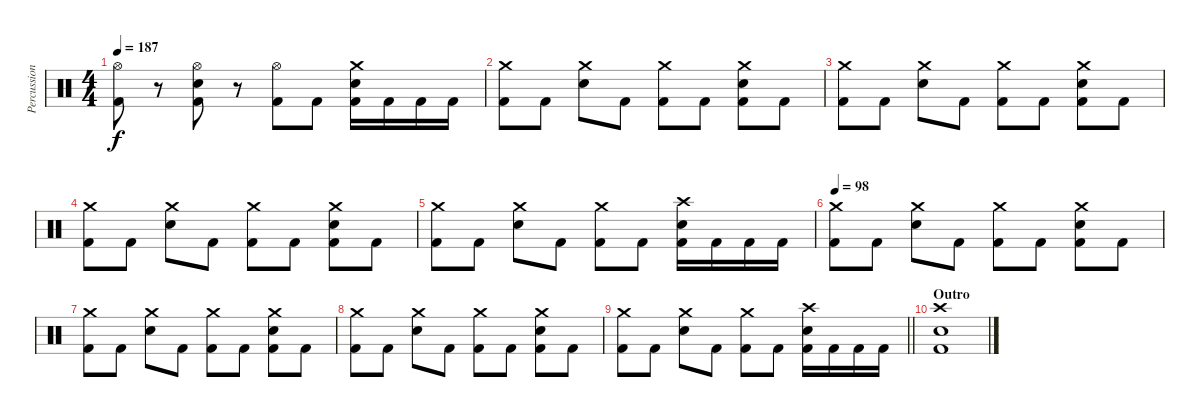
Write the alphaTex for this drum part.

\track ("Percussion" "Percussion") {instrument percussion}
\staff {score}
\articulation defaults
\ts (4 4)
\tempo 187
\clef neutral
\ks c
("Hi-Hat (open)" "Kick (hit) 2").8{dy f} r.8 ("Hi-Hat (open)" "Electric Snare (hit)" "Kick (hit) 2").8 r.8 ("Hi-Hat (open)" "Kick (hit) 2").8 "Kick (hit) 2".8 ("Crash medium (hit)" "Electric Snare (hit)" "Kick (hit) 2").16 "Kick (hit) 2".16 "Kick (hit) 2".16 "Kick (hit) 2".16 |
("Crash medium (hit)" "Kick (hit) 2").8 "Kick (hit) 2".8 ("Crash medium (hit)" "Electric Snare (hit)").8 "Kick (hit) 2".8 ("Crash medium (hit)" "Kick (hit) 2").8 "Kick (hit) 2".8 ("Crash medium (hit)" "Electric Snare (hit)" "Kick (hit) 2").8 "Kick (hit) 2".8 |
("Crash medium (hit)" "Kick (hit) 2").8 "Kick (hit) 2".8 ("Crash medium (hit)" "Electric Snare (hit)").8 "Kick (hit) 2".8 ("Crash medium (hit)" "Kick (hit) 2").8 "Kick (hit) 2".8 ("Crash medium (hit)" "Electric Snare (hit)" "Kick (hit) 2").8 "Kick (hit) 2".8 |
("Crash medium (hit)" "Kick (hit) 2").8 "Kick (hit) 2".8 ("Crash medium (hit)" "Electric Snare (hit)").8 "Kick (hit) 2".8 ("Crash medium (hit)" "Kick (hit) 2").8 "Kick (hit) 2".8 ("Crash medium (hit)" "Electric Snare (hit)" "Kick (hit) 2").8 "Kick (hit) 2".8 |
("Crash medium (hit)" "Kick (hit) 2").8 "Kick (hit) 2".8 ("Crash medium (hit)" "Electric Snare (hit)").8 "Kick (hit) 2".8 ("Crash medium (hit)" "Kick (hit) 2").8 "Kick (hit) 2".8 ("Crash high (hit)" "Electric Snare (hit)" "Kick (hit) 2").16 "Kick (hit) 2".16 "Kick (hit) 2".16 "Kick (hit) 2".16 |
\tempo 98
("Crash medium (hit)" "Kick (hit) 2").8 "Kick (hit) 2".8 ("Crash medium (hit)" "Electric Snare (hit)").8 "Kick (hit) 2".8 ("Crash medium (hit)" "Kick (hit) 2").8 "Kick (hit) 2".8 ("Crash medium (hit)" "Electric Snare (hit)" "Kick (hit) 2").8 "Kick (hit) 2".8 |
("Crash medium (hit)" "Kick (hit) 2").8 "Kick (hit) 2".8 ("Crash medium (hit)" "Electric Snare (hit)").8 "Kick (hit) 2".8 ("Crash medium (hit)" "Kick (hit) 2").8 "Kick (hit) 2".8 ("Crash medium (hit)" "Electric Snare (hit)" "Kick (hit) 2").8 "Kick (hit) 2".8 |
("Crash medium (hit)" "Kick (hit) 2").8 "Kick (hit) 2".8 ("Crash medium (hit)" "Electric Snare (hit)").8 "Kick (hit) 2".8 ("Crash medium (hit)" "Kick (hit) 2").8 "Kick (hit) 2".8 ("Crash medium (hit)" "Electric Snare (hit)" "Kick (hit) 2").8 "Kick (hit) 2".8 |
\barLineRight lightlight
("Crash medium (hit)" "Kick (hit) 2").8 "Kick (hit) 2".8 ("Crash medium (hit)" "Electric Snare (hit)").8 "Kick (hit) 2".8 ("Crash medium (hit)" "Kick (hit) 2").8 "Kick (hit) 2".8 ("Crash high (hit)" "Electric Snare (hit)" "Kick (hit) 2").16 "Kick (hit) 2".16 "Kick (hit) 2".16 "Kick (hit) 2".16 |
\section ("" "Outro")
("Crash high (hit)" "Electric Snare (hit)" "Kick (hit) 2").1
